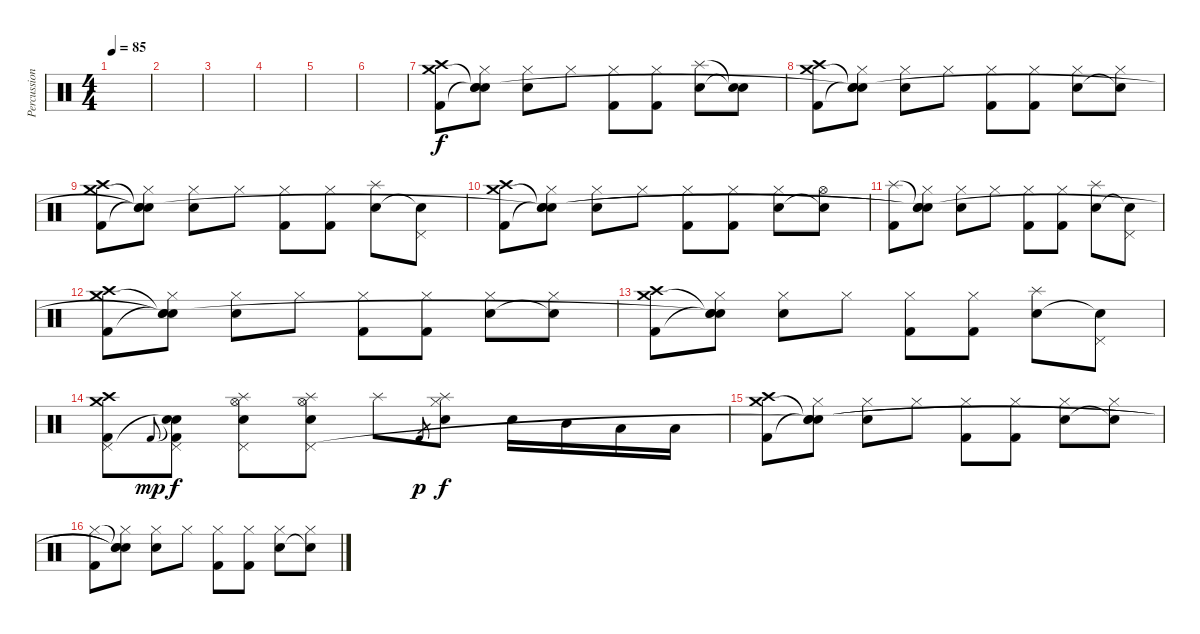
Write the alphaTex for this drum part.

\track ("Percussion" "Percussion") {instrument percussion}
\staff {score}
\articulation defaults
\ts (4 4)
\tempo 85
\clef neutral
\ks c
|
|
|
|
|
|
("Crash medium (hit)" "Crash high (hit)" "Kick (hit) 2").8 ("Snare (hit)"{t} "Hi-Hat (closed)" "Snare (hit) 2"{t} "Snare (hit)").8 ("Hi-Hat (closed)" "Snare (hit) 2").8 "Hi-Hat (closed)".8 ("Hi-Hat (closed)" "Kick (hit) 2").8 ("Hi-Hat (closed)" "Kick (hit) 2").8 ("Splash (hit)" "Snare (hit) 2").8 ("Snare (hit)"{t} "Snare (hit)"{t}).8 |
("Crash medium (hit)" "Crash high (hit)" "Kick (hit) 2").8 ("Snare (hit)"{t} "Hi-Hat (closed)" "Snare (hit) 2"{t} "Snare (hit)"{t}).8 ("Hi-Hat (closed)" "Snare (hit) 2").8 "Hi-Hat (closed)".8 ("Hi-Hat (closed)" "Kick (hit) 2").8 ("Hi-Hat (closed)" "Kick (hit) 2").8 ("Hi-Hat (closed)" "Snare (hit) 2").8 ("Hi-Hat (closed)" "Snare (hit)"{t}).8 |
("Crash medium (hit)" "Crash high (hit)" "Kick (hit) 2").8 ("Snare (hit)"{t} "Hi-Hat (closed)" "Snare (hit) 2"{t} "Snare (hit)"{t}).8 ("Hi-Hat (closed)" "Snare (hit) 2").8 "Hi-Hat (closed)".8 ("Hi-Hat (closed)" "Kick (hit) 2").8 ("Hi-Hat (closed)" "Kick (hit) 2").8 ("Splash (hit)" "Snare (hit) 2").8 ("Pedal Hi-Hat (hit)" "Snare (hit)"{t}).8 |
("Crash medium (hit)" "Crash high (hit)" "Kick (hit) 2").8 ("Snare (hit)"{t} "Hi-Hat (closed)" "Snare (hit) 2"{t} "Snare (hit)"{t}).8 ("Hi-Hat (closed)" "Snare (hit) 2").8 "Hi-Hat (closed)".8 ("Hi-Hat (closed)" "Kick (hit) 2").8 ("Hi-Hat (closed)" "Kick (hit) 2").8 ("Hi-Hat (closed)" "Snare (hit) 2").8 ("Hi-Hat (open)" "Snare (hit)"{t}).8 |
("Splash (hit)" "Kick (hit) 2").8 ("Snare (hit)"{t} "Hi-Hat (closed)" "Snare (hit) 2"{t} "Snare (hit)"{t}).8 ("Hi-Hat (closed)" "Snare (hit) 2").8 "Hi-Hat (closed)".8 ("Hi-Hat (closed)" "Kick (hit) 2").8 ("Hi-Hat (closed)" "Kick (hit) 2").8 ("Splash (hit)" "Snare (hit) 2").8 ("Pedal Hi-Hat (hit)" "Snare (hit)"{t}).8 |
("Crash medium (hit)" "Crash high (hit)" "Kick (hit) 2").8 ("Snare (hit)"{t} "Hi-Hat (closed)" "Snare (hit) 2"{t} "Snare (hit)"{t}).8 ("Hi-Hat (closed)" "Snare (hit) 2").8 "Hi-Hat (closed)".8 ("Hi-Hat (closed)" "Kick (hit) 2").8 ("Hi-Hat (closed)" "Kick (hit) 2").8 ("Hi-Hat (closed)" "Snare (hit) 2").8 ("Hi-Hat (closed)" "Snare (hit)"{t}).8 |
("Crash medium (hit)" "Crash high (hit)" "Kick (hit) 2").8 ("Snare (hit)"{t} "Hi-Hat (closed)" "Snare (hit) 2"{t} "Snare (hit)"{t}).8 ("Hi-Hat (closed)" "Snare (hit) 2").8 "Hi-Hat (closed)".8 ("Hi-Hat (closed)" "Kick (hit) 2").8 ("Hi-Hat (closed)" "Kick (hit) 2").8 ("Splash (hit)" "Snare (hit) 2").8 ("Pedal Hi-Hat (hit)" "Snare (hit)"{t}).8 |
("Crash medium (hit)" "Crash high (hit)" "Kick (hit) 2" "Pedal Hi-Hat (hit)").8 "Kick (hit) 2".8{gr onbeat dy mp} ("Snare (hit)"{t} "Pedal Hi-Hat (hit)" "Kick (hit) 2" "Snare (hit)"{t}).8{dy f} ("Splash (hit)" "Hi-Hat (open)" "Snare (hit) 2" "Pedal Hi-Hat (hit)").8 ("Splash (hit)" "Hi-Hat (open)" "Snare (hit) 2" "Pedal Hi-Hat (hit)").8 "Splash (hit)".8 "Kick (hit) 2".8{gr dy p} ("Splash (hit)" "Hi-Hat (closed)" "Snare (hit) 2").8{dy f} "Snare (hit) 2".16 "Mid Tom (hit)".16 "Low Tom (hit)".16 "Low Floor Tom (hit)".16 |
("Crash medium (hit)" "Crash high (hit)" "Kick (hit) 2").8 ("Snare (hit)"{t} "Hi-Hat (closed)" "Snare (hit) 2"{t} "Snare (hit)"{t}).8 ("Hi-Hat (closed)" "Snare (hit) 2").8 "Hi-Hat (closed)".8 ("Hi-Hat (closed)" "Kick (hit) 2").8 ("Hi-Hat (closed)" "Kick (hit) 2").8 ("Hi-Hat (closed)" "Snare (hit) 2").8 ("Hi-Hat (closed)" "Snare (hit)"{t}).8 |
("Hi-Hat (closed)" "Kick (hit) 2").8 ("Snare (hit)"{t} "Hi-Hat (closed)" "Snare (hit) 2"{t} "Snare (hit)"{t}).8 ("Hi-Hat (closed)" "Snare (hit) 2").8 "Hi-Hat (closed)".8 ("Hi-Hat (closed)" "Kick (hit) 2").8 ("Hi-Hat (closed)" "Kick (hit) 2").8 ("Hi-Hat (closed)" "Snare (hit) 2").8 ("Hi-Hat (closed)" "Snare (hit)"{t}).8
